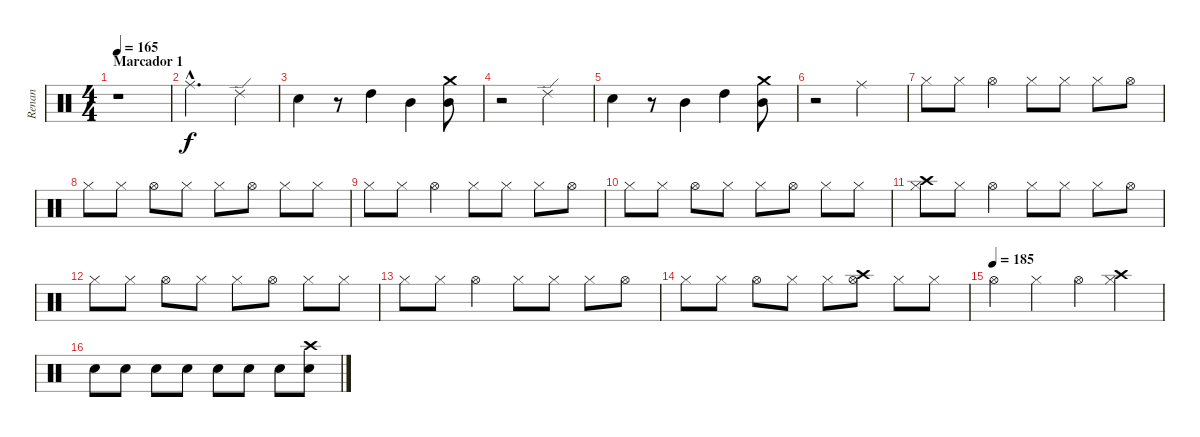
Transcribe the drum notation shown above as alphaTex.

\track ("Renan" "Renan") {instrument percussion}
\staff {score}
\articulation defaults
\ts (4 4)
\section ("" "Marcador 1")
\tempo 165
\clef neutral
\ks c
r.1{dy f} |
"Ride (middle)"{hac}.2{d} "Ride (edge) 2".4 |
"Electric Snare (hit)".4 r.8 "High Tom (hit)".4 "Mid Tom (hit)".4 ("Crash medium (hit)" "Mid Tom (hit)").8 |
r.2 "Ride (edge) 2".2 |
"Electric Snare (hit)".4 r.8 "Mid Tom (hit)".4 "High Tom (hit)".4 ("Crash medium (hit)" "Mid Tom (hit)").8 |
r.2 "Ride (middle)".2 |
"Hi-Hat (closed)".8 "Hi-Hat (closed)".8 "Hi-Hat (open)".4 "Hi-Hat (closed)".8 "Hi-Hat (closed)".8 "Hi-Hat (closed)".8 "Hi-Hat (open)".8 |
"Hi-Hat (closed)".8 "Hi-Hat (closed)".8 "Hi-Hat (open)".8 "Hi-Hat (closed)".8 "Hi-Hat (closed)".8 "Hi-Hat (open)".8 "Hi-Hat (closed)".8 "Hi-Hat (closed)".8 |
"Hi-Hat (closed)".8 "Hi-Hat (closed)".8 "Hi-Hat (open)".4 "Hi-Hat (closed)".8 "Hi-Hat (closed)".8 "Hi-Hat (closed)".8 "Hi-Hat (open)".8 |
"Hi-Hat (closed)".8 "Hi-Hat (closed)".8 "Hi-Hat (open)".8 "Hi-Hat (closed)".8 "Hi-Hat (closed)".8 "Hi-Hat (open)".8 "Hi-Hat (closed)".8 "Hi-Hat (closed)".8 |
("Crash high (hit)" "Hi-Hat (closed)").8 "Hi-Hat (closed)".8 "Hi-Hat (open)".4 "Hi-Hat (closed)".8 "Hi-Hat (closed)".8 "Hi-Hat (closed)".8 "Hi-Hat (open)".8 |
"Hi-Hat (closed)".8 "Hi-Hat (closed)".8 "Hi-Hat (open)".8 "Hi-Hat (closed)".8 "Hi-Hat (closed)".8 "Hi-Hat (open)".8 "Hi-Hat (closed)".8 "Hi-Hat (closed)".8 |
"Hi-Hat (closed)".8 "Hi-Hat (closed)".8 "Hi-Hat (open)".4 "Hi-Hat (closed)".8 "Hi-Hat (closed)".8 "Hi-Hat (closed)".8 "Hi-Hat (open)".8 |
"Hi-Hat (closed)".8 "Hi-Hat (closed)".8 "Hi-Hat (open)".8 "Hi-Hat (closed)".8 "Hi-Hat (closed)".8 ("Crash high (hit)" "Hi-Hat (open)").8 "Hi-Hat (closed)".8 "Hi-Hat (closed)".8 |
\tempo (185)
"Hi-Hat (open)".4 "Hi-Hat (closed)".4 "Hi-Hat (open)".4 ("Crash high (hit)" "Hi-Hat (closed)").4 |
"Electric Snare (hit)".8 "Electric Snare (hit)".8 "Electric Snare (hit)".8 "Electric Snare (hit)".8 "Electric Snare (hit)".8 "Electric Snare (hit)".8 "Electric Snare (hit)".8 ("Crash high (hit)" "Electric Snare (hit)").8
